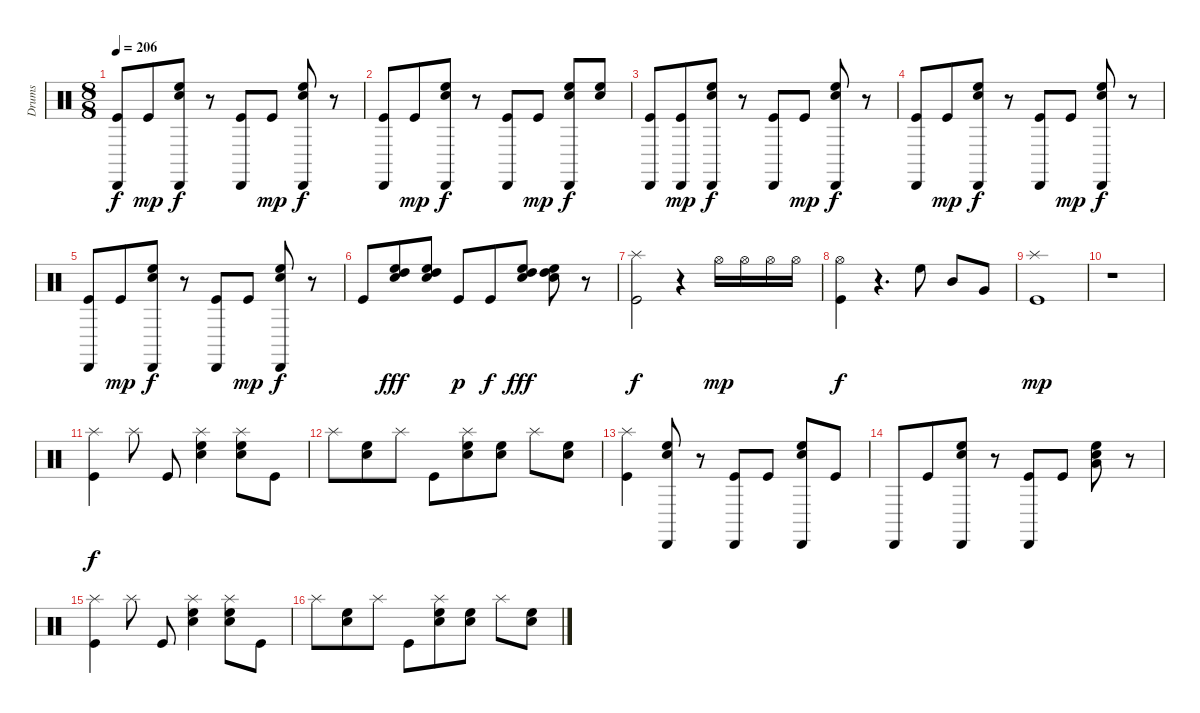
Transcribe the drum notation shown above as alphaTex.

\track ("Drums" "Drums") {instrument percussion}
\staff {score}
\articulation defaults
\ts (8 8)
\tempo 206
\clef neutral
\ks c
("Kick (hit)" "Cabasa (hit)").8{dy f} "Kick (hit)".8{dy mp} ("Cabasa (hit)" "High Floor Tom (hit)" "Electric Snare (hit)").8{dy f} r.8 ("Kick (hit)" "Cabasa (hit)").8 "Kick (hit)".8{dy mp} ("Cabasa (hit)" "High Floor Tom (hit)" "Electric Snare (hit)").8{dy f} r.8 |
("Kick (hit)" "Cabasa (hit)").8 "Kick (hit)".8{dy mp} ("Cabasa (hit)" "High Floor Tom (hit)" "Electric Snare (hit)").8{dy f} r.8 ("Kick (hit)" "Cabasa (hit)").8 "Kick (hit)".8{dy mp} ("Cabasa (hit)" "High Floor Tom (hit)" "Electric Snare (hit)").8{dy f} ("Electric Snare (hit)" "High Floor Tom (hit)").8 |
("Kick (hit)" "Cabasa (hit)").8 ("Cabasa (hit)" "Kick (hit)").8{dy mp} ("Cabasa (hit)" "High Floor Tom (hit)" "Electric Snare (hit)").8{dy f} r.8 ("Kick (hit)" "Cabasa (hit)").8 "Kick (hit)".8{dy mp} ("Cabasa (hit)" "High Floor Tom (hit)" "Electric Snare (hit)").8{dy f} r.8 |
("Kick (hit)" "Cabasa (hit)").8 "Kick (hit)".8{dy mp} ("Cabasa (hit)" "High Floor Tom (hit)" "Electric Snare (hit)").8{dy f} r.8 ("Kick (hit)" "Cabasa (hit)").8 "Kick (hit)".8{dy mp} ("Cabasa (hit)" "High Floor Tom (hit)" "Electric Snare (hit)").8{dy f} r.8 |
("Kick (hit)" "Cabasa (hit)").8 "Kick (hit)".8{dy mp} ("Cabasa (hit)" "High Floor Tom (hit)" "Electric Snare (hit)").8{dy f} r.8 ("Kick (hit)" "Cabasa (hit)").8 "Kick (hit)".8{dy mp} ("Cabasa (hit)" "High Floor Tom (hit)" "Electric Snare (hit)").8{dy f} r.8 |
"Kick (hit)".8 ("High Tom (hit)" "High Floor Tom (hit)" "Electric Snare (hit)").8{dy fff} ("High Tom (hit)" "High Floor Tom (hit)" "Electric Snare (hit)").8 "Kick (hit)".8{dy p} "Kick (hit)".8{dy f} ("Electric Snare (hit)" "High Tom (hit)" "High Floor Tom (hit)").8{dy fff} ("High Tom (hit)" "High Floor Tom (hit)" "Electric Snare (hit)").8 r.8 |
("Splash (hit)" "Kick (hit)").2{dy f} r.4 "Hi-Hat (open)".16{dy mp} "Hi-Hat (open)".16 "Hi-Hat (open)".16 "Hi-Hat (open)".16 |
("Kick (hit)" "Hi-Hat (open)").4{dy f} r.4{d} "High Floor Tom (hit)".8 "Mid Tom (hit)".8 "Very Low Tom (hit)".8 |
("Splash (hit)" "Kick (hit)").1{dy mp} |
r.1 |
("Splash (hit)" "Kick (hit)").4{dy f} "Splash (hit)".8 "Kick (hit)".8 ("Splash (hit)" "High Floor Tom (hit)" "Electric Snare (hit)").4 ("Splash (hit)" "Electric Snare (hit)" "High Floor Tom (hit)").8 "Kick (hit)".8 |
"Splash (hit)".8 ("High Floor Tom (hit)" "Electric Snare (hit)").8 "Splash (hit)".8 "Kick (hit)".8 ("Splash (hit)" "High Floor Tom (hit)" "Electric Snare (hit)").8 ("High Floor Tom (hit)" "Electric Snare (hit)").8 "Splash (hit)".8 ("High Floor Tom (hit)" "Electric Snare (hit)").8 |
("Splash (hit)" "Kick (hit)").4 ("Cabasa (hit)" "High Floor Tom (hit)" "Electric Snare (hit)").8 r.8 ("Cabasa (hit)" "Kick (hit)").8 "Kick (hit)".8 ("Cabasa (hit)" "High Floor Tom (hit)" "Electric Snare (hit)").8 "Kick (hit)".8 |
"Cabasa (hit)".8 "Kick (hit)".8 ("Cabasa (hit)" "High Floor Tom (hit)" "Electric Snare (hit)").8 r.8 ("Cabasa (hit)" "Kick (hit)").8 "Kick (hit)".8 ("Low Tom (hit)" "High Floor Tom (hit)" "Electric Snare (hit)").8 r.8 |
("Splash (hit)" "Kick (hit)").4 "Splash (hit)".8 "Kick (hit)".8 ("Splash (hit)" "High Floor Tom (hit)" "Electric Snare (hit)").4 ("Splash (hit)" "Electric Snare (hit)" "High Floor Tom (hit)").8 "Kick (hit)".8 |
"Splash (hit)".8 ("High Floor Tom (hit)" "Electric Snare (hit)").8 "Splash (hit)".8 "Kick (hit)".8 ("Splash (hit)" "High Floor Tom (hit)" "Electric Snare (hit)").8 ("High Floor Tom (hit)" "Electric Snare (hit)").8 "Splash (hit)".8 ("High Floor Tom (hit)" "Electric Snare (hit)").8
